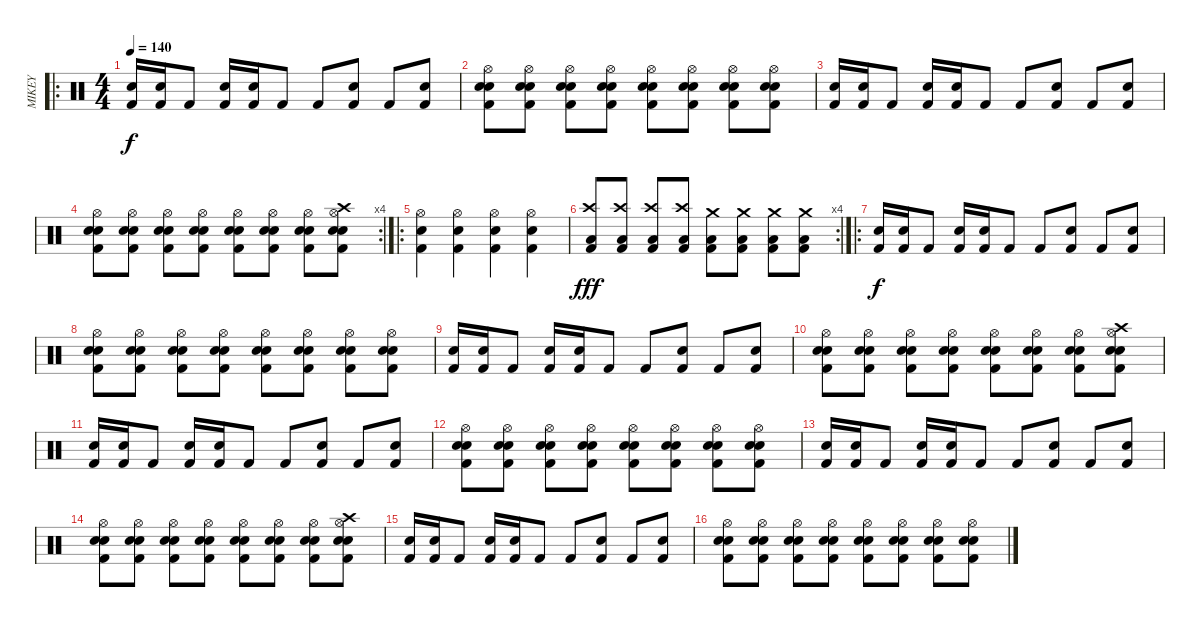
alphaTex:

\track ("MIKEY" "MIKEY") {instrument percussion}
\staff {score}
\articulation defaults
\ro
\ts (4 4)
\tempo 140
\clef neutral
\ks c
("Snare (hit) 2" "Kick (hit) 2").16{dy f} ("Snare (hit) 2" "Kick (hit) 2").16 "Kick (hit) 2".8 ("Snare (hit) 2" "Kick (hit) 2").16 ("Snare (hit) 2" "Kick (hit) 2").16 "Kick (hit) 2".8 "Kick (hit) 2".8 ("Snare (hit) 2" "Kick (hit) 2").8 "Kick (hit) 2".8 ("Snare (hit) 2" "Kick (hit) 2").8 |
("Electric Snare (hit)" "Kick (hit) 2" "Hi-Hat (open)" "Electric Snare (hit)").8 ("Electric Snare (hit)" "Kick (hit) 2" "Hi-Hat (open)" "Electric Snare (hit)").8 ("Electric Snare (hit)" "Kick (hit) 2" "Hi-Hat (open)" "Electric Snare (hit)").8 ("Electric Snare (hit)" "Kick (hit) 2" "Hi-Hat (open)" "Electric Snare (hit)").8 ("Electric Snare (hit)" "Kick (hit) 2" "Hi-Hat (open)" "Electric Snare (hit)").8 ("Electric Snare (hit)" "Kick (hit) 2" "Hi-Hat (open)" "Electric Snare (hit)").8 ("Electric Snare (hit)" "Kick (hit) 2" "Hi-Hat (open)" "Electric Snare (hit)").8 ("Electric Snare (hit)" "Kick (hit) 2" "Hi-Hat (open)" "Electric Snare (hit)").8 |
("Snare (hit) 2" "Kick (hit) 2").16 ("Snare (hit) 2" "Kick (hit) 2").16 "Kick (hit) 2".8 ("Snare (hit) 2" "Kick (hit) 2").16 ("Snare (hit) 2" "Kick (hit) 2").16 "Kick (hit) 2".8 "Kick (hit) 2".8 ("Snare (hit) 2" "Kick (hit) 2").8 "Kick (hit) 2".8 ("Snare (hit) 2" "Kick (hit) 2").8 |
\rc 4
("Electric Snare (hit)" "Kick (hit) 2" "Hi-Hat (open)" "Electric Snare (hit)").8 ("Electric Snare (hit)" "Kick (hit) 2" "Hi-Hat (open)" "Electric Snare (hit)").8 ("Electric Snare (hit)" "Kick (hit) 2" "Hi-Hat (open)" "Electric Snare (hit)").8 ("Electric Snare (hit)" "Kick (hit) 2" "Hi-Hat (open)" "Electric Snare (hit)").8 ("Electric Snare (hit)" "Kick (hit) 2" "Hi-Hat (open)" "Electric Snare (hit)").8 ("Electric Snare (hit)" "Kick (hit) 2" "Hi-Hat (open)" "Electric Snare (hit)").8 ("Electric Snare (hit)" "Kick (hit) 2" "Hi-Hat (open)" "Electric Snare (hit)").8 ("Crash high (hit)" "Electric Snare (hit)" "Kick (hit) 2" "Hi-Hat (open)" "Electric Snare (hit)").8 |
\ro
("Hi-Hat (open)" "Electric Snare (hit)" "Kick (hit) 2").4 ("Hi-Hat (open)" "Electric Snare (hit)" "Kick (hit) 2").4 ("Hi-Hat (open)" "Electric Snare (hit)" "Kick (hit) 2").4 ("Hi-Hat (open)" "Electric Snare (hit)" "Kick (hit) 2").4 |
\rc 4
("Crash high (hit)" "Low Floor Tom (hit)" "Kick (hit) 2").8{dy fff} ("Crash high (hit)" "Low Floor Tom (hit)" "Kick (hit) 2").8 ("Crash high (hit)" "Low Floor Tom (hit)" "Kick (hit) 2").8 ("Crash high (hit)" "Low Floor Tom (hit)" "Kick (hit) 2").8 ("Crash medium (hit)" "Low Floor Tom (hit)" "Kick (hit) 2").8 ("Crash medium (hit)" "Low Floor Tom (hit)" "Kick (hit) 2").8 ("Crash medium (hit)" "Low Floor Tom (hit)" "Kick (hit) 2").8 ("Crash medium (hit)" "Low Floor Tom (hit)" "Kick (hit) 2").8 |
\ro
("Snare (hit) 2" "Kick (hit) 2").16{dy f} ("Snare (hit) 2" "Kick (hit) 2").16 "Kick (hit) 2".8 ("Snare (hit) 2" "Kick (hit) 2").16 ("Snare (hit) 2" "Kick (hit) 2").16 "Kick (hit) 2".8 "Kick (hit) 2".8 ("Snare (hit) 2" "Kick (hit) 2").8 "Kick (hit) 2".8 ("Snare (hit) 2" "Kick (hit) 2").8 |
("Electric Snare (hit)" "Kick (hit) 2" "Hi-Hat (open)" "Electric Snare (hit)").8 ("Electric Snare (hit)" "Kick (hit) 2" "Hi-Hat (open)" "Electric Snare (hit)").8 ("Electric Snare (hit)" "Kick (hit) 2" "Hi-Hat (open)" "Electric Snare (hit)").8 ("Electric Snare (hit)" "Kick (hit) 2" "Hi-Hat (open)" "Electric Snare (hit)").8 ("Electric Snare (hit)" "Kick (hit) 2" "Hi-Hat (open)" "Electric Snare (hit)").8 ("Electric Snare (hit)" "Kick (hit) 2" "Hi-Hat (open)" "Electric Snare (hit)").8 ("Electric Snare (hit)" "Kick (hit) 2" "Hi-Hat (open)" "Electric Snare (hit)").8 ("Electric Snare (hit)" "Kick (hit) 2" "Hi-Hat (open)" "Electric Snare (hit)").8 |
("Snare (hit) 2" "Kick (hit) 2").16 ("Snare (hit) 2" "Kick (hit) 2").16 "Kick (hit) 2".8 ("Snare (hit) 2" "Kick (hit) 2").16 ("Snare (hit) 2" "Kick (hit) 2").16 "Kick (hit) 2".8 "Kick (hit) 2".8 ("Snare (hit) 2" "Kick (hit) 2").8 "Kick (hit) 2".8 ("Snare (hit) 2" "Kick (hit) 2").8 |
("Electric Snare (hit)" "Kick (hit) 2" "Hi-Hat (open)" "Electric Snare (hit)").8 ("Electric Snare (hit)" "Kick (hit) 2" "Hi-Hat (open)" "Electric Snare (hit)").8 ("Electric Snare (hit)" "Kick (hit) 2" "Hi-Hat (open)" "Electric Snare (hit)").8 ("Electric Snare (hit)" "Kick (hit) 2" "Hi-Hat (open)" "Electric Snare (hit)").8 ("Electric Snare (hit)" "Kick (hit) 2" "Hi-Hat (open)" "Electric Snare (hit)").8 ("Electric Snare (hit)" "Kick (hit) 2" "Hi-Hat (open)" "Electric Snare (hit)").8 ("Electric Snare (hit)" "Kick (hit) 2" "Hi-Hat (open)" "Electric Snare (hit)").8 ("Crash high (hit)" "Electric Snare (hit)" "Kick (hit) 2" "Hi-Hat (open)" "Electric Snare (hit)").8 |
("Snare (hit) 2" "Kick (hit) 2").16 ("Snare (hit) 2" "Kick (hit) 2").16 "Kick (hit) 2".8 ("Snare (hit) 2" "Kick (hit) 2").16 ("Snare (hit) 2" "Kick (hit) 2").16 "Kick (hit) 2".8 "Kick (hit) 2".8 ("Snare (hit) 2" "Kick (hit) 2").8 "Kick (hit) 2".8 ("Snare (hit) 2" "Kick (hit) 2").8 |
("Electric Snare (hit)" "Kick (hit) 2" "Hi-Hat (open)" "Electric Snare (hit)").8 ("Electric Snare (hit)" "Kick (hit) 2" "Hi-Hat (open)" "Electric Snare (hit)").8 ("Electric Snare (hit)" "Kick (hit) 2" "Hi-Hat (open)" "Electric Snare (hit)").8 ("Electric Snare (hit)" "Kick (hit) 2" "Hi-Hat (open)" "Electric Snare (hit)").8 ("Electric Snare (hit)" "Kick (hit) 2" "Hi-Hat (open)" "Electric Snare (hit)").8 ("Electric Snare (hit)" "Kick (hit) 2" "Hi-Hat (open)" "Electric Snare (hit)").8 ("Electric Snare (hit)" "Kick (hit) 2" "Hi-Hat (open)" "Electric Snare (hit)").8 ("Electric Snare (hit)" "Kick (hit) 2" "Hi-Hat (open)" "Electric Snare (hit)").8 |
("Snare (hit) 2" "Kick (hit) 2").16 ("Snare (hit) 2" "Kick (hit) 2").16 "Kick (hit) 2".8 ("Snare (hit) 2" "Kick (hit) 2").16 ("Snare (hit) 2" "Kick (hit) 2").16 "Kick (hit) 2".8 "Kick (hit) 2".8 ("Snare (hit) 2" "Kick (hit) 2").8 "Kick (hit) 2".8 ("Snare (hit) 2" "Kick (hit) 2").8 |
("Electric Snare (hit)" "Kick (hit) 2" "Hi-Hat (open)" "Electric Snare (hit)").8 ("Electric Snare (hit)" "Kick (hit) 2" "Hi-Hat (open)" "Electric Snare (hit)").8 ("Electric Snare (hit)" "Kick (hit) 2" "Hi-Hat (open)" "Electric Snare (hit)").8 ("Electric Snare (hit)" "Kick (hit) 2" "Hi-Hat (open)" "Electric Snare (hit)").8 ("Electric Snare (hit)" "Kick (hit) 2" "Hi-Hat (open)" "Electric Snare (hit)").8 ("Electric Snare (hit)" "Kick (hit) 2" "Hi-Hat (open)" "Electric Snare (hit)").8 ("Electric Snare (hit)" "Kick (hit) 2" "Hi-Hat (open)" "Electric Snare (hit)").8 ("Crash high (hit)" "Electric Snare (hit)" "Kick (hit) 2" "Hi-Hat (open)" "Electric Snare (hit)").8 |
("Snare (hit) 2" "Kick (hit) 2").16 ("Snare (hit) 2" "Kick (hit) 2").16 "Kick (hit) 2".8 ("Snare (hit) 2" "Kick (hit) 2").16 ("Snare (hit) 2" "Kick (hit) 2").16 "Kick (hit) 2".8 "Kick (hit) 2".8 ("Snare (hit) 2" "Kick (hit) 2").8 "Kick (hit) 2".8 ("Snare (hit) 2" "Kick (hit) 2").8 |
("Electric Snare (hit)" "Kick (hit) 2" "Hi-Hat (open)" "Electric Snare (hit)").8 ("Electric Snare (hit)" "Kick (hit) 2" "Hi-Hat (open)" "Electric Snare (hit)").8 ("Electric Snare (hit)" "Kick (hit) 2" "Hi-Hat (open)" "Electric Snare (hit)").8 ("Electric Snare (hit)" "Kick (hit) 2" "Hi-Hat (open)" "Electric Snare (hit)").8 ("Electric Snare (hit)" "Kick (hit) 2" "Hi-Hat (open)" "Electric Snare (hit)").8 ("Electric Snare (hit)" "Kick (hit) 2" "Hi-Hat (open)" "Electric Snare (hit)").8 ("Electric Snare (hit)" "Kick (hit) 2" "Hi-Hat (open)" "Electric Snare (hit)").8 ("Electric Snare (hit)" "Kick (hit) 2" "Hi-Hat (open)" "Electric Snare (hit)").8
